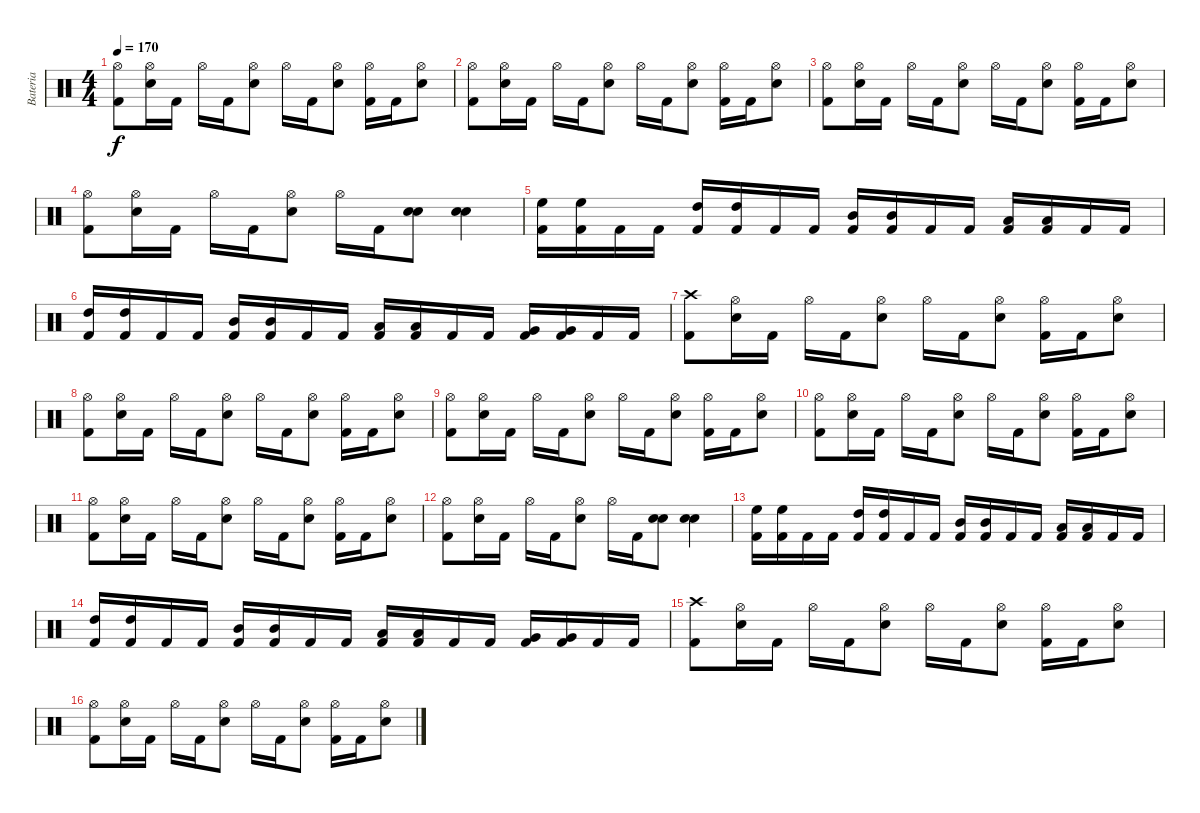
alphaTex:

\track ("Bateria" "Bateria") {instrument percussion}
\staff {score}
\articulation defaults
\ts (4 4)
\tempo 170
\clef neutral
\ks c
("Hi-Hat (open)" "Kick (hit) 2").8{dy f} ("Hi-Hat (open)" "Snare (hit) 2").16 "Kick (hit) 2".16 "Hi-Hat (open)".16 "Kick (hit) 2".16 ("Hi-Hat (open)" "Snare (hit) 2").8 "Hi-Hat (open)".16 "Kick (hit) 2".16 ("Hi-Hat (open)" "Snare (hit) 2").8 ("Hi-Hat (open)" "Kick (hit) 2").16 "Kick (hit) 2".16 ("Hi-Hat (open)" "Snare (hit) 2").8 |
("Hi-Hat (open)" "Kick (hit) 2").8 ("Hi-Hat (open)" "Snare (hit) 2").16 "Kick (hit) 2".16 "Hi-Hat (open)".16 "Kick (hit) 2".16 ("Hi-Hat (open)" "Snare (hit) 2").8 "Hi-Hat (open)".16 "Kick (hit) 2".16 ("Hi-Hat (open)" "Snare (hit) 2").8 ("Hi-Hat (open)" "Kick (hit) 2").16 "Kick (hit) 2".16 ("Hi-Hat (open)" "Snare (hit) 2").8 |
("Hi-Hat (open)" "Kick (hit) 2").8 ("Hi-Hat (open)" "Snare (hit) 2").16 "Kick (hit) 2".16 "Hi-Hat (open)".16 "Kick (hit) 2".16 ("Hi-Hat (open)" "Snare (hit) 2").8 "Hi-Hat (open)".16 "Kick (hit) 2".16 ("Hi-Hat (open)" "Snare (hit) 2").8 ("Hi-Hat (open)" "Kick (hit) 2").16 "Kick (hit) 2".16 ("Hi-Hat (open)" "Snare (hit) 2").8 |
("Hi-Hat (open)" "Kick (hit) 2").8 ("Hi-Hat (open)" "Snare (hit) 2").16 "Kick (hit) 2".16 "Hi-Hat (open)".16 "Kick (hit) 2".16 ("Hi-Hat (open)" "Snare (hit) 2").8 "Hi-Hat (open)".16 "Kick (hit) 2".16 ("Snare (hit) 2" "Snare (hit) 2").8 ("Snare (hit) 2" "Snare (hit) 2").4 |
("High Floor Tom (hit)" "Kick (hit) 2").16 ("High Floor Tom (hit)" "Kick (hit) 2").16 "Kick (hit) 2".16 "Kick (hit) 2".16 ("High Tom (hit)" "Kick (hit) 2").16 ("High Tom (hit)" "Kick (hit) 2").16 "Kick (hit) 2".16 "Kick (hit) 2".16 ("Mid Tom (hit)" "Kick (hit) 2").16 ("Mid Tom (hit)" "Kick (hit) 2").16 "Kick (hit) 2".16 "Kick (hit) 2".16 ("Low Tom (hit)" "Kick (hit) 2").16 ("Low Tom (hit)" "Kick (hit) 2").16 "Kick (hit) 2".16 "Kick (hit) 2".16 |
("High Tom (hit)" "Kick (hit) 2").16 ("High Tom (hit)" "Kick (hit) 2").16 "Kick (hit) 2".16 "Kick (hit) 2".16 ("Mid Tom (hit)" "Kick (hit) 2").16 ("Mid Tom (hit)" "Kick (hit) 2").16 "Kick (hit) 2".16 "Kick (hit) 2".16 ("Low Tom (hit)" "Kick (hit) 2").16 ("Low Tom (hit)" "Kick (hit) 2").16 "Kick (hit) 2".16 "Kick (hit) 2".16 ("Very Low Tom (hit)" "Kick (hit) 2").16 ("Very Low Tom (hit)" "Kick (hit) 2").16 "Kick (hit) 2".16 "Kick (hit) 2".16 |
("Crash high (hit)" "Kick (hit) 2").8 ("Hi-Hat (open)" "Snare (hit) 2").16 "Kick (hit) 2".16 "Hi-Hat (open)".16 "Kick (hit) 2".16 ("Hi-Hat (open)" "Snare (hit) 2").8 "Hi-Hat (open)".16 "Kick (hit) 2".16 ("Hi-Hat (open)" "Snare (hit) 2").8 ("Hi-Hat (open)" "Kick (hit) 2").16 "Kick (hit) 2".16 ("Hi-Hat (open)" "Snare (hit) 2").8 |
("Hi-Hat (open)" "Kick (hit) 2").8 ("Hi-Hat (open)" "Snare (hit) 2").16 "Kick (hit) 2".16 "Hi-Hat (open)".16 "Kick (hit) 2".16 ("Hi-Hat (open)" "Snare (hit) 2").8 "Hi-Hat (open)".16 "Kick (hit) 2".16 ("Hi-Hat (open)" "Snare (hit) 2").8 ("Hi-Hat (open)" "Kick (hit) 2").16 "Kick (hit) 2".16 ("Hi-Hat (open)" "Snare (hit) 2").8 |
("Hi-Hat (open)" "Kick (hit) 2").8 ("Hi-Hat (open)" "Snare (hit) 2").16 "Kick (hit) 2".16 "Hi-Hat (open)".16 "Kick (hit) 2".16 ("Hi-Hat (open)" "Snare (hit) 2").8 "Hi-Hat (open)".16 "Kick (hit) 2".16 ("Hi-Hat (open)" "Snare (hit) 2").8 ("Hi-Hat (open)" "Kick (hit) 2").16 "Kick (hit) 2".16 ("Hi-Hat (open)" "Snare (hit) 2").8 |
("Hi-Hat (open)" "Kick (hit) 2").8 ("Hi-Hat (open)" "Snare (hit) 2").16 "Kick (hit) 2".16 "Hi-Hat (open)".16 "Kick (hit) 2".16 ("Hi-Hat (open)" "Snare (hit) 2").8 "Hi-Hat (open)".16 "Kick (hit) 2".16 ("Hi-Hat (open)" "Snare (hit) 2").8 ("Hi-Hat (open)" "Kick (hit) 2").16 "Kick (hit) 2".16 ("Hi-Hat (open)" "Snare (hit) 2").8 |
("Hi-Hat (open)" "Kick (hit) 2").8 ("Hi-Hat (open)" "Snare (hit) 2").16 "Kick (hit) 2".16 "Hi-Hat (open)".16 "Kick (hit) 2".16 ("Hi-Hat (open)" "Snare (hit) 2").8 "Hi-Hat (open)".16 "Kick (hit) 2".16 ("Hi-Hat (open)" "Snare (hit) 2").8 ("Hi-Hat (open)" "Kick (hit) 2").16 "Kick (hit) 2".16 ("Hi-Hat (open)" "Snare (hit) 2").8 |
("Hi-Hat (open)" "Kick (hit) 2").8 ("Hi-Hat (open)" "Snare (hit) 2").16 "Kick (hit) 2".16 "Hi-Hat (open)".16 "Kick (hit) 2".16 ("Hi-Hat (open)" "Snare (hit) 2").8 "Hi-Hat (open)".16 "Kick (hit) 2".16 ("Snare (hit) 2" "Snare (hit) 2").8 ("Snare (hit) 2" "Snare (hit) 2").4 |
("High Floor Tom (hit)" "Kick (hit) 2").16 ("High Floor Tom (hit)" "Kick (hit) 2").16 "Kick (hit) 2".16 "Kick (hit) 2".16 ("High Tom (hit)" "Kick (hit) 2").16 ("High Tom (hit)" "Kick (hit) 2").16 "Kick (hit) 2".16 "Kick (hit) 2".16 ("Mid Tom (hit)" "Kick (hit) 2").16 ("Mid Tom (hit)" "Kick (hit) 2").16 "Kick (hit) 2".16 "Kick (hit) 2".16 ("Low Tom (hit)" "Kick (hit) 2").16 ("Low Tom (hit)" "Kick (hit) 2").16 "Kick (hit) 2".16 "Kick (hit) 2".16 |
("High Tom (hit)" "Kick (hit) 2").16 ("High Tom (hit)" "Kick (hit) 2").16 "Kick (hit) 2".16 "Kick (hit) 2".16 ("Mid Tom (hit)" "Kick (hit) 2").16 ("Mid Tom (hit)" "Kick (hit) 2").16 "Kick (hit) 2".16 "Kick (hit) 2".16 ("Low Tom (hit)" "Kick (hit) 2").16 ("Low Tom (hit)" "Kick (hit) 2").16 "Kick (hit) 2".16 "Kick (hit) 2".16 ("Very Low Tom (hit)" "Kick (hit) 2").16 ("Very Low Tom (hit)" "Kick (hit) 2").16 "Kick (hit) 2".16 "Kick (hit) 2".16 |
("Crash high (hit)" "Kick (hit) 2").8 ("Hi-Hat (open)" "Snare (hit) 2").16 "Kick (hit) 2".16 "Hi-Hat (open)".16 "Kick (hit) 2".16 ("Hi-Hat (open)" "Snare (hit) 2").8 "Hi-Hat (open)".16 "Kick (hit) 2".16 ("Hi-Hat (open)" "Snare (hit) 2").8 ("Hi-Hat (open)" "Kick (hit) 2").16 "Kick (hit) 2".16 ("Hi-Hat (open)" "Snare (hit) 2").8 |
("Hi-Hat (open)" "Kick (hit) 2").8 ("Hi-Hat (open)" "Snare (hit) 2").16 "Kick (hit) 2".16 "Hi-Hat (open)".16 "Kick (hit) 2".16 ("Hi-Hat (open)" "Snare (hit) 2").8 "Hi-Hat (open)".16 "Kick (hit) 2".16 ("Hi-Hat (open)" "Snare (hit) 2").8 ("Hi-Hat (open)" "Kick (hit) 2").16 "Kick (hit) 2".16 ("Hi-Hat (open)" "Snare (hit) 2").8
